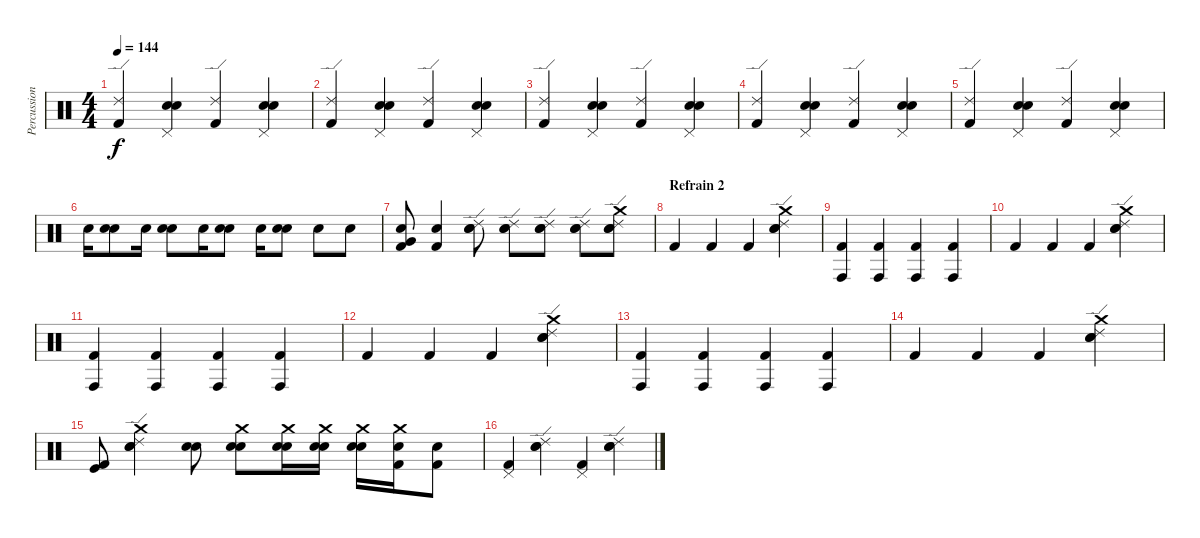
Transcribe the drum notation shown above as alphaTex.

\track ("Percussions" "Percussion") {instrument percussion}
\staff {score}
\articulation defaults
\ts (4 4)
\tempo 144
\clef neutral
\ks c
("Kick (hit) 2" "Ride (edge) 2").4{dy f} ("Snare (hit) 2" "Electric Snare (hit)" "Pedal Hi-Hat (hit)").4 ("Kick (hit) 2" "Ride (edge) 2").4 ("Snare (hit) 2" "Electric Snare (hit)" "Pedal Hi-Hat (hit)").4 |
("Kick (hit) 2" "Ride (edge) 2").4 ("Snare (hit) 2" "Electric Snare (hit)" "Pedal Hi-Hat (hit)").4 ("Kick (hit) 2" "Ride (edge) 2").4 ("Snare (hit) 2" "Electric Snare (hit)" "Pedal Hi-Hat (hit)").4 |
("Kick (hit) 2" "Ride (edge) 2").4 ("Snare (hit) 2" "Electric Snare (hit)" "Pedal Hi-Hat (hit)").4 ("Kick (hit) 2" "Ride (edge) 2").4 ("Snare (hit) 2" "Electric Snare (hit)" "Pedal Hi-Hat (hit)").4 |
("Kick (hit) 2" "Ride (edge) 2").4 ("Snare (hit) 2" "Electric Snare (hit)" "Pedal Hi-Hat (hit)").4 ("Kick (hit) 2" "Ride (edge) 2").4 ("Snare (hit) 2" "Electric Snare (hit)" "Pedal Hi-Hat (hit)").4 |
("Kick (hit) 2" "Ride (edge) 2").4 ("Snare (hit) 2" "Electric Snare (hit)" "Pedal Hi-Hat (hit)").4 ("Kick (hit) 2" "Ride (edge) 2").4 ("Snare (hit) 2" "Electric Snare (hit)" "Pedal Hi-Hat (hit)").4 |
"Snare (hit) 2".16 ("Snare (hit) 2" "Electric Snare (hit)").8 "Snare (hit) 2".16 ("Snare (hit) 2" "Electric Snare (hit)").8 "Snare (hit) 2".16 ("Snare (hit) 2" "Electric Snare (hit)").8 "Snare (hit) 2".16 ("Snare (hit) 2" "Electric Snare (hit)").8 "Electric Snare (hit)".8 "Electric Snare (hit)".8 |
("Kick (hit) 2" "Very Low Tom (hit)" "Electric Snare (hit)").8 ("Kick (hit) 2" "Electric Snare (hit)").4 ("Snare (hit) 2" "Electric Snare (hit)" "Ride (edge) 2").8 ("Snare (hit) 2" "Electric Snare (hit)" "Ride (edge) 2").8 ("Snare (hit) 2" "Electric Snare (hit)" "Ride (edge) 2").8 ("Snare (hit) 2" "Electric Snare (hit)" "Ride (edge) 2").8 ("Snare (hit) 2" "Electric Snare (hit)" "Ride (edge) 2" "Crash medium (hit)").8 |
\section ("" "Refrain 2")
"Kick (hit) 2".4 "Kick (hit) 2".4 "Kick (hit) 2".4 ("Snare (hit) 2" "Electric Snare (hit)" "Ride (edge) 2" "Crash medium (hit)").4 |
("Kick (hit) 2" "Conga high (hit)").4 ("Kick (hit) 2" "Conga high (hit)").4 ("Kick (hit) 2" "Conga high (hit)").4 ("Kick (hit) 2" "Conga high (hit)").4 |
"Kick (hit) 2".4 "Kick (hit) 2".4 "Kick (hit) 2".4 ("Snare (hit) 2" "Electric Snare (hit)" "Ride (edge) 2" "Crash medium (hit)").4 |
("Kick (hit) 2" "Conga high (hit)").4 ("Kick (hit) 2" "Conga high (hit)").4 ("Kick (hit) 2" "Conga high (hit)").4 ("Kick (hit) 2" "Conga high (hit)").4 |
"Kick (hit) 2".4 "Kick (hit) 2".4 "Kick (hit) 2".4 ("Snare (hit) 2" "Electric Snare (hit)" "Ride (edge) 2" "Crash medium (hit)").4 |
("Kick (hit) 2" "Conga high (hit)").4 ("Kick (hit) 2" "Conga high (hit)").4 ("Kick (hit) 2" "Conga high (hit)").4 ("Kick (hit) 2" "Conga high (hit)").4 |
"Kick (hit) 2".4 "Kick (hit) 2".4 "Kick (hit) 2".4 ("Snare (hit) 2" "Electric Snare (hit)" "Ride (edge) 2" "Crash medium (hit)").4 |
("Kick (hit) 2" "Kick (hit)").8 ("Snare (hit) 2" "Electric Snare (hit)" "Ride (edge) 2" "Crash medium (hit)").4 ("Snare (hit) 2" "Electric Snare (hit)").8 ("Snare (hit) 2" "Electric Snare (hit)" "Crash medium (hit)").8 ("Snare (hit) 2" "Electric Snare (hit)" "Crash medium (hit)").16 ("Snare (hit) 2" "Electric Snare (hit)" "Crash medium (hit)").16 ("Snare (hit) 2" "Electric Snare (hit)" "Crash medium (hit)").16 ("Kick (hit) 2" "Electric Snare (hit)" "Crash medium (hit)").16 ("Kick (hit) 2" "Electric Snare (hit)").8 |
("Kick (hit) 2" "Pedal Hi-Hat (hit)").4 ("Snare (hit) 2" "Electric Snare (hit)" "Ride (edge) 2").4 ("Kick (hit) 2" "Pedal Hi-Hat (hit)").4 ("Snare (hit) 2" "Electric Snare (hit)" "Ride (edge) 2").4
